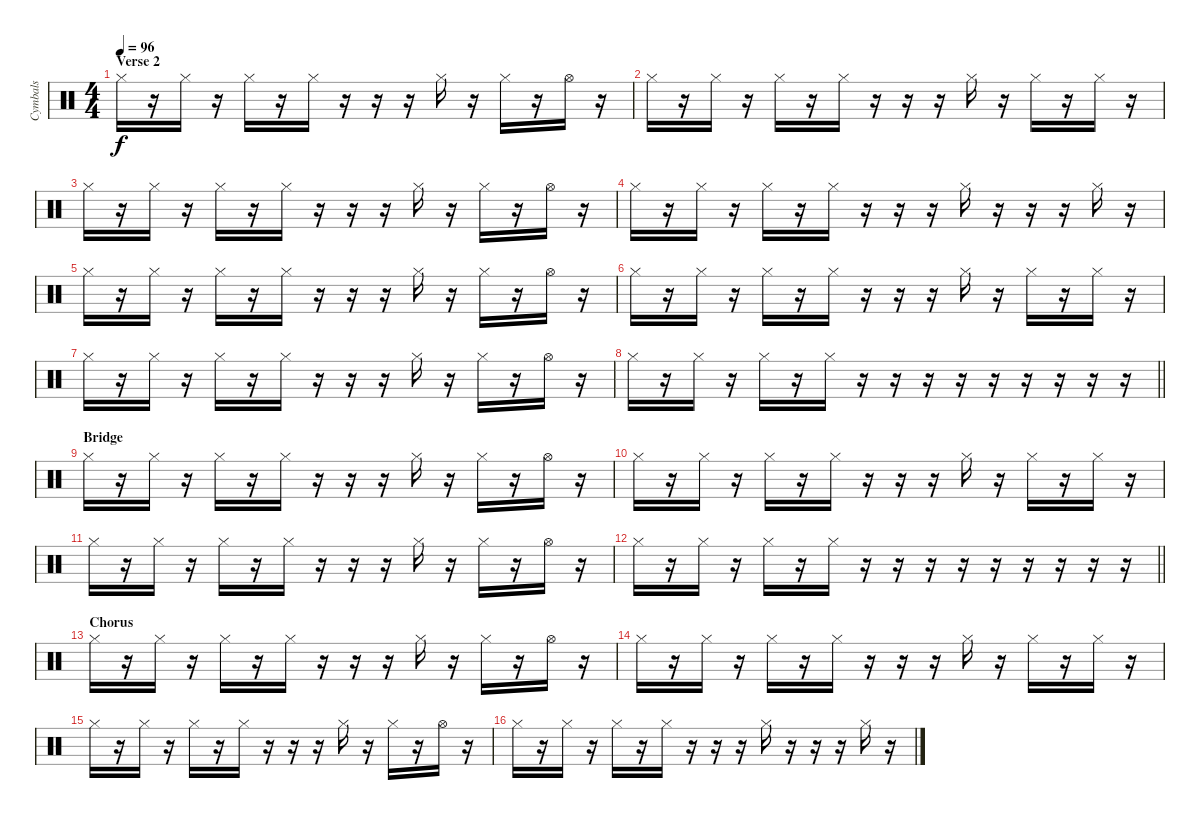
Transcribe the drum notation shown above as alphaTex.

\track ("Cymbals" "Cymbals") {instrument percussion}
\staff {score}
\articulation defaults
\ts (4 4)
\section ("" "Verse 2")
\tempo 96
\clef neutral
\ks c "Hi-Hat (closed)".16{dy f}
r.16 "Hi-Hat (closed)".16 r.16 "Hi-Hat (closed)".16 r.16 "Hi-Hat (closed)".16 r.16 r.16 r.16 "Hi-Hat (closed)".16 r.16 "Hi-Hat (closed)".16 r.16 "Hi-Hat (open)".16 r.16 |
"Hi-Hat (closed)".16 r.16 "Hi-Hat (closed)".16 r.16 "Hi-Hat (closed)".16 r.16 "Hi-Hat (closed)".16 r.16 r.16 r.16 "Hi-Hat (closed)".16 r.16 "Hi-Hat (closed)".16 r.16 "Hi-Hat (closed)".16 r.16 |
"Hi-Hat (closed)".16 r.16 "Hi-Hat (closed)".16 r.16 "Hi-Hat (closed)".16 r.16 "Hi-Hat (closed)".16 r.16 r.16 r.16 "Hi-Hat (closed)".16 r.16 "Hi-Hat (closed)".16 r.16 "Hi-Hat (open)".16 r.16 |
"Hi-Hat (closed)".16 r.16 "Hi-Hat (closed)".16 r.16 "Hi-Hat (closed)".16 r.16 "Hi-Hat (closed)".16 r.16 r.16 r.16 "Hi-Hat (closed)".16 r.16 r.16 r.16 "Hi-Hat (closed)".16 r.16 |
"Hi-Hat (closed)".16 r.16 "Hi-Hat (closed)".16 r.16 "Hi-Hat (closed)".16 r.16 "Hi-Hat (closed)".16 r.16 r.16 r.16 "Hi-Hat (closed)".16 r.16 "Hi-Hat (closed)".16 r.16 "Hi-Hat (open)".16 r.16 |
"Hi-Hat (closed)".16 r.16 "Hi-Hat (closed)".16 r.16 "Hi-Hat (closed)".16 r.16 "Hi-Hat (closed)".16 r.16 r.16 r.16 "Hi-Hat (closed)".16 r.16 "Hi-Hat (closed)".16 r.16 "Hi-Hat (closed)".16 r.16 |
"Hi-Hat (closed)".16 r.16 "Hi-Hat (closed)".16 r.16 "Hi-Hat (closed)".16 r.16 "Hi-Hat (closed)".16 r.16 r.16 r.16 "Hi-Hat (closed)".16 r.16 "Hi-Hat (closed)".16 r.16 "Hi-Hat (open)".16 r.16 |
\barLineRight lightlight "Hi-Hat (closed)".16
r.16 "Hi-Hat (closed)".16 r.16 "Hi-Hat (closed)".16 r.16 "Hi-Hat (closed)".16 r.16 r.16 r.16 r.16 r.16 r.16 r.16 r.16 r.16 |
\section ("" "Bridge")
"Hi-Hat (closed)".16 r.16 "Hi-Hat (closed)".16 r.16 "Hi-Hat (closed)".16 r.16 "Hi-Hat (closed)".16 r.16 r.16 r.16 "Hi-Hat (closed)".16 r.16 "Hi-Hat (closed)".16 r.16 "Hi-Hat (open)".16 r.16 |
"Hi-Hat (closed)".16 r.16 "Hi-Hat (closed)".16 r.16 "Hi-Hat (closed)".16 r.16 "Hi-Hat (closed)".16 r.16 r.16 r.16 "Hi-Hat (closed)".16 r.16 "Hi-Hat (closed)".16 r.16 "Hi-Hat (closed)".16 r.16 |
"Hi-Hat (closed)".16 r.16 "Hi-Hat (closed)".16 r.16 "Hi-Hat (closed)".16 r.16 "Hi-Hat (closed)".16 r.16 r.16 r.16 "Hi-Hat (closed)".16 r.16 "Hi-Hat (closed)".16 r.16 "Hi-Hat (open)".16 r.16 |
\barLineRight lightlight "Hi-Hat (closed)".16
r.16 "Hi-Hat (closed)".16 r.16 "Hi-Hat (closed)".16 r.16 "Hi-Hat (closed)".16 r.16 r.16 r.16 r.16 r.16 r.16 r.16 r.16 r.16 |
\section ("" "Chorus")
"Hi-Hat (closed)".16 r.16 "Hi-Hat (closed)".16 r.16 "Hi-Hat (closed)".16 r.16 "Hi-Hat (closed)".16 r.16 r.16 r.16 "Hi-Hat (closed)".16 r.16 "Hi-Hat (closed)".16 r.16 "Hi-Hat (open)".16 r.16 |
"Hi-Hat (closed)".16 r.16 "Hi-Hat (closed)".16 r.16 "Hi-Hat (closed)".16 r.16 "Hi-Hat (closed)".16 r.16 r.16 r.16 "Hi-Hat (closed)".16 r.16 "Hi-Hat (closed)".16 r.16 "Hi-Hat (closed)".16 r.16 |
"Hi-Hat (closed)".16 r.16 "Hi-Hat (closed)".16 r.16 "Hi-Hat (closed)".16 r.16 "Hi-Hat (closed)".16 r.16 r.16 r.16 "Hi-Hat (closed)".16 r.16 "Hi-Hat (closed)".16 r.16 "Hi-Hat (open)".16 r.16 |
"Hi-Hat (closed)".16 r.16 "Hi-Hat (closed)".16 r.16 "Hi-Hat (closed)".16 r.16 "Hi-Hat (closed)".16 r.16 r.16 r.16 "Hi-Hat (closed)".16 r.16 r.16 r.16 "Hi-Hat (closed)".16 r.16
